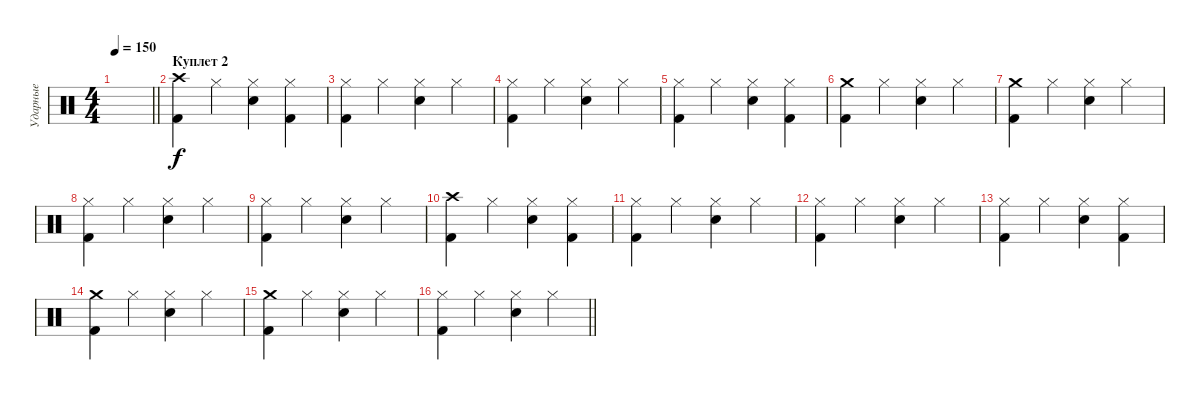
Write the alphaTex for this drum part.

\track ("Ударные" "Ударные") {instrument percussion}
\staff {score}
\articulation defaults
\ts (4 4)
\tempo 150
\clef neutral
\barLineRight lightlight
\ks c
|
\section ("" "Куплет 2")
("Crash high (hit)" "Kick (hit) 2").4 "Hi-Hat (closed)".4 ("Hi-Hat (closed)" "Snare (hit) 2").4 ("Hi-Hat (closed)" "Kick (hit) 2").4 |
("Hi-Hat (closed)" "Kick (hit) 2").4 "Hi-Hat (closed)".4 ("Hi-Hat (closed)" "Snare (hit) 2").4 "Hi-Hat (closed)".4 |
("Hi-Hat (closed)" "Kick (hit) 2").4 "Hi-Hat (closed)".4 ("Hi-Hat (closed)" "Snare (hit) 2").4 "Hi-Hat (closed)".4 |
("Hi-Hat (closed)" "Kick (hit) 2").4 "Hi-Hat (closed)".4 ("Hi-Hat (closed)" "Snare (hit) 2").4 ("Hi-Hat (closed)" "Kick (hit) 2").4 |
("Crash medium (hit)" "Kick (hit) 2").4 "Hi-Hat (closed)".4 ("Hi-Hat (closed)" "Snare (hit) 2").4 "Hi-Hat (closed)".4 |
("Crash medium (hit)" "Kick (hit) 2").4 "Hi-Hat (closed)".4 ("Hi-Hat (closed)" "Snare (hit) 2").4 "Hi-Hat (closed)".4 |
("Hi-Hat (closed)" "Kick (hit) 2").4 "Hi-Hat (closed)".4 ("Hi-Hat (closed)" "Snare (hit) 2").4 "Hi-Hat (closed)".4 |
("Hi-Hat (closed)" "Kick (hit) 2").4 "Hi-Hat (closed)".4 ("Hi-Hat (closed)" "Snare (hit) 2").4 "Hi-Hat (closed)".4 |
("Crash high (hit)" "Kick (hit) 2").4 "Hi-Hat (closed)".4 ("Hi-Hat (closed)" "Snare (hit) 2").4 ("Hi-Hat (closed)" "Kick (hit) 2").4 |
("Hi-Hat (closed)" "Kick (hit) 2").4 "Hi-Hat (closed)".4 ("Hi-Hat (closed)" "Snare (hit) 2").4 "Hi-Hat (closed)".4 |
("Hi-Hat (closed)" "Kick (hit) 2").4 "Hi-Hat (closed)".4 ("Hi-Hat (closed)" "Snare (hit) 2").4 "Hi-Hat (closed)".4 |
("Hi-Hat (closed)" "Kick (hit) 2").4 "Hi-Hat (closed)".4 ("Hi-Hat (closed)" "Snare (hit) 2").4 ("Hi-Hat (closed)" "Kick (hit) 2").4 |
("Crash medium (hit)" "Kick (hit) 2").4 "Hi-Hat (closed)".4 ("Hi-Hat (closed)" "Snare (hit) 2").4 "Hi-Hat (closed)".4 |
("Crash medium (hit)" "Kick (hit) 2").4 "Hi-Hat (closed)".4 ("Hi-Hat (closed)" "Snare (hit) 2").4 "Hi-Hat (closed)".4 |
\barLineRight lightlight
("Hi-Hat (closed)" "Kick (hit) 2").4 "Hi-Hat (closed)".4 ("Hi-Hat (closed)" "Snare (hit) 2").4 "Hi-Hat (closed)".4
